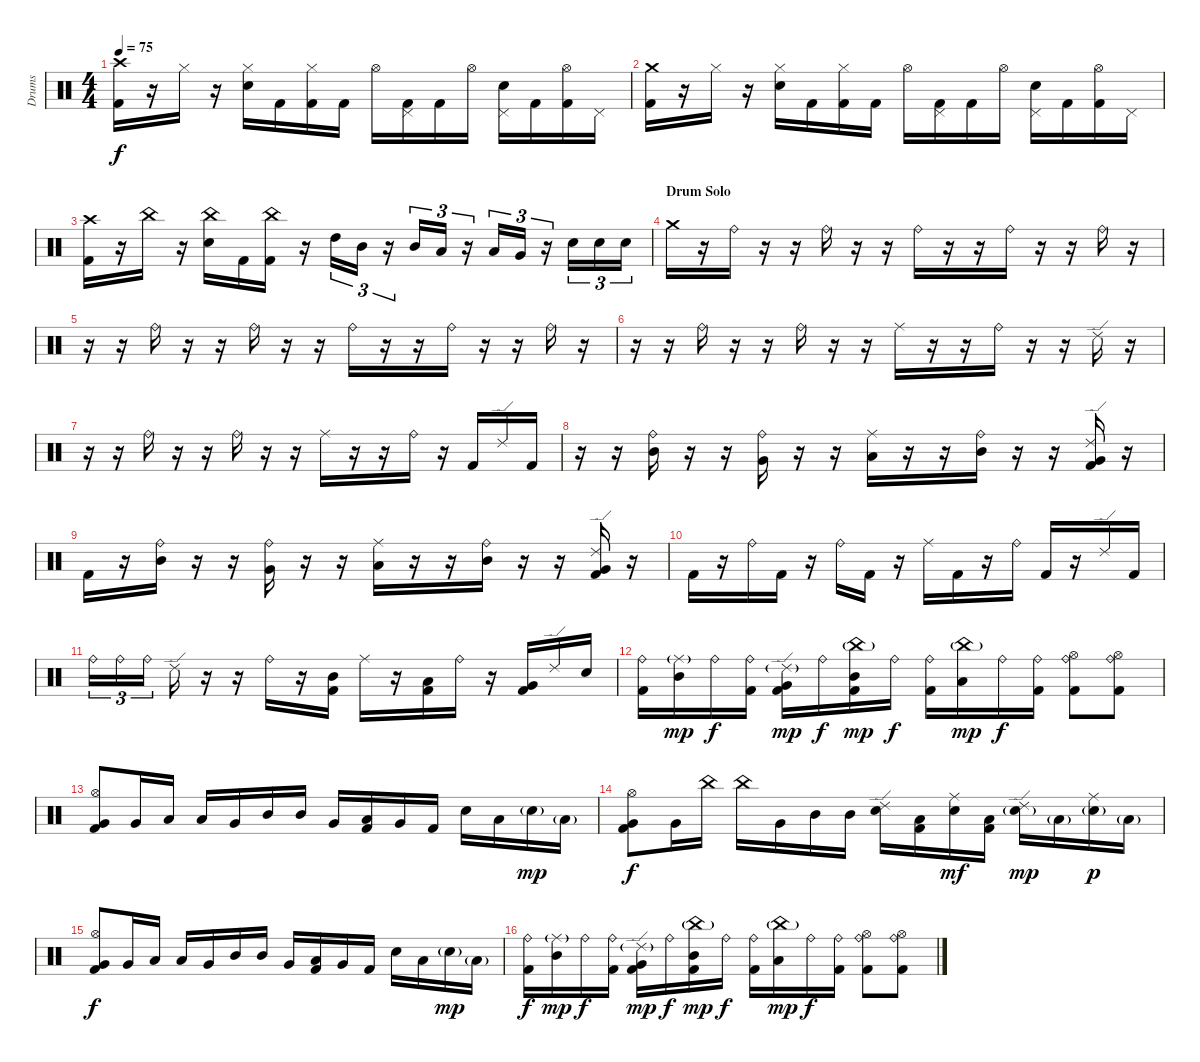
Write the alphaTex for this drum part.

\track ("Drums" "Drums") {instrument percussion}
\staff {score}
\articulation defaults
\ts (4 4)
\tempo 75
\clef neutral
\ks c
("Crash high (hit)" "Kick (hit) 2").16{dy f} r.16 "Hi-Hat (closed)".16 r.16 ("Hi-Hat (closed)" "Snare (hit) 2").16 "Kick (hit) 2".16 ("Hi-Hat (closed)" "Kick (hit) 2").16 "Kick (hit) 2".16 "Hi-Hat (open)".16 ("Pedal Hi-Hat (hit)" "Kick (hit) 2").16 "Kick (hit) 2".16 "Hi-Hat (open)".16 ("Pedal Hi-Hat (hit)" "Snare (hit) 2").16 "Kick (hit) 2".16 ("Hi-Hat (open)" "Kick (hit) 2").16 "Pedal Hi-Hat (hit)".16 |
("Crash medium (hit)" "Kick (hit) 2").16 r.16 "Hi-Hat (closed)".16 r.16 ("Hi-Hat (closed)" "Snare (hit) 2").16 "Kick (hit) 2".16 ("Hi-Hat (closed)" "Kick (hit) 2").16 "Kick (hit) 2".16 "Hi-Hat (open)".16 ("Pedal Hi-Hat (hit)" "Kick (hit) 2").16 "Kick (hit) 2".16 "Hi-Hat (open)".16 ("Pedal Hi-Hat (hit)" "Snare (hit) 2").16 "Kick (hit) 2".16 ("Hi-Hat (open)" "Kick (hit) 2").16 "Pedal Hi-Hat (hit)".16 |
("Crash high (hit)" "Kick (hit) 2").16 r.16 "China (hit)".16 r.16 ("China (hit)" "Snare (hit) 2").16 "Kick (hit) 2".16 ("China (hit)" "Kick (hit) 2").16 r.16 "High Tom (hit)".16{tu (3 2)} "Mid Tom (hit)".16{tu (3 2)} r.16{tu (3 2)} "Mid Tom (hit)".16{tu (3 2)} "Low Tom (hit)".16{tu (3 2)} r.16{tu (3 2)} "Low Tom (hit)".16{tu (3 2)} "Very Low Tom (hit)".16{tu (3 2)} r.16{tu (3 2)} "Snare (hit) 2".16{tu (3 2)} "Snare (hit) 2".16{tu (3 2)} "Snare (hit) 2".16{tu (3 2)} |
\section ("" "Drum Solo")
"Crash medium (hit)".16 r.16 "Ride (bell)".16 r.16 r.16 "Ride (bell)".16 r.16 r.16 "Ride (bell)".16 r.16 r.16 "Ride (bell)".16 r.16 r.16 "Ride (bell)".16 r.16 |
r.16 r.16 "Ride (bell)".16 r.16 r.16 "Ride (bell)".16 r.16 r.16 "Ride (bell)".16 r.16 r.16 "Ride (bell)".16 r.16 r.16 "Ride (bell)".16 r.16 |
r.16 r.16 "Ride (bell)".16 r.16 r.16 "Ride (bell)".16 r.16 r.16 "Ride (middle)".16 r.16 r.16 "Ride (bell)".16 r.16 r.16 "Ride (edge) 2".16 r.16 |
r.16 r.16 "Ride (bell)".16 r.16 r.16 "Ride (bell)".16 r.16 r.16 "Ride (middle)".16 r.16 r.16 "Ride (bell)".16 r.16 "Kick (hit) 2".16 "Ride (edge) 2".16 "Kick (hit) 2".16 |
r.16 r.16 ("Ride (bell)" "Mid Tom (hit)").16 r.16 r.16 ("Ride (bell)" "Very Low Tom (hit)").16 r.16 r.16 ("Ride (middle)" "Low Tom (hit)").16 r.16 r.16 ("Ride (bell)" "Mid Tom (hit)").16 r.16 r.16 ("Ride (edge) 2" "Very Low Tom (hit)" "Kick (hit) 2").16 r.16 |
"Kick (hit) 2".16 r.16 ("Ride (bell)" "Mid Tom (hit)").16 r.16 r.16 ("Ride (bell)" "Very Low Tom (hit)").16 r.16 r.16 ("Ride (middle)" "Low Tom (hit)").16 r.16 r.16 ("Ride (bell)" "Mid Tom (hit)").16 r.16 r.16 ("Ride (edge) 2" "Very Low Tom (hit)" "Kick (hit) 2").16 r.16 |
"Kick (hit) 2".16 r.16 "Ride (bell)".16 "Kick (hit) 2".16 r.16 "Ride (bell)".16 "Kick (hit) 2".16 r.16 "Ride (middle)".16 "Kick (hit) 2".16 r.16 "Ride (bell)".16 "Kick (hit) 2".16 r.16 "Ride (edge) 2".16 "Kick (hit) 2".16 |
"Ride (bell)".16{tu (3 2)} "Ride (bell)".16{tu (3 2)} "Ride (bell)".16{tu (3 2)} "Ride (edge) 2".16 r.16 r.16 "Ride (bell)".16 r.16 ("Mid Tom (hit)" "Kick (hit) 2").16 "Ride (middle)".16 r.16 ("Low Tom (hit)" "Kick (hit) 2").16 "Ride (bell)".16 r.16 ("Very Low Tom (hit)" "Kick (hit) 2").16 "Ride (edge) 2".16 "Snare (hit) 2".16 |
("Ride (bell)" "Kick (hit) 2").16 ("Ride (middle)"{g} "Mid Tom (hit)").16{dy mp} "Ride (bell)".16{dy f} ("Ride (bell)" "Kick (hit) 2").16 ("Ride (edge) 2"{g} "Very Low Tom (hit)" "Kick (hit) 2").16{dy mp} "Ride (bell)".16{dy f} ("China (hit)"{g} "Mid Tom (hit)" "Kick (hit) 2").16{dy mp} "Ride (bell)".16{dy f} ("Ride (bell)" "Kick (hit) 2").16 ("China (hit)"{g} "Low Tom (hit)").16{dy mp} "Ride (bell)".16{dy f} ("Ride (bell)" "Kick (hit) 2").16 ("Ride (bell)" "Hi-Hat (open)" "Kick (hit) 2").8 ("Ride (bell)" "Hi-Hat (open)" "Kick (hit) 2").8 |
("Hi-Hat (open)" "Very Low Tom (hit)" "Kick (hit) 2").8 "Very Low Tom (hit)".16 "Low Tom (hit)".16 "Low Tom (hit)".16 "Very Low Tom (hit)".16 "Mid Tom (hit)".16 "Mid Tom (hit)".16 "Very Low Tom (hit)".16 ("Low Tom (hit)" "Kick (hit) 2").16 "Very Low Tom (hit)".16 "Kick (hit) 2".16 "Snare (hit) 2".16 "Low Tom (hit)".16 "Snare (hit) 2"{g}.16{dy mp} "Low Tom (hit)"{g}.16 |
("Hi-Hat (open)" "Very Low Tom (hit)" "Kick (hit) 2").8{dy f} "Very Low Tom (hit)".16 "China (hit)".16 "China (hit)".16 "Very Low Tom (hit)".16 "Mid Tom (hit)".16 "Mid Tom (hit)".16 ("Ride (edge) 2" "Snare (hit) 2").16 ("Low Tom (hit)" "Kick (hit) 2").16 ("Ride (middle)" "Snare (hit) 2").16{dy mf} ("Low Tom (hit)" "Kick (hit) 2").16 ("Ride (edge) 2" "Snare (hit) 2"{g}).16{dy mp} "Low Tom (hit)"{g}.16 ("Ride (middle)" "Snare (hit) 2"{g}).16{dy p} "Low Tom (hit)"{g}.16 |
("Hi-Hat (open)" "Very Low Tom (hit)" "Kick (hit) 2").8{dy f} "Very Low Tom (hit)".16 "Low Tom (hit)".16 "Low Tom (hit)".16 "Very Low Tom (hit)".16 "Mid Tom (hit)".16 "Mid Tom (hit)".16 "Very Low Tom (hit)".16 ("Low Tom (hit)" "Kick (hit) 2").16 "Very Low Tom (hit)".16 "Kick (hit) 2".16 "Snare (hit) 2".16 "Low Tom (hit)".16 "Snare (hit) 2"{g}.16{dy mp} "Low Tom (hit)"{g}.16 |
("Ride (bell)" "Kick (hit) 2").16{dy f} ("Ride (middle)"{g} "Mid Tom (hit)").16{dy mp} "Ride (bell)".16{dy f} ("Ride (bell)" "Kick (hit) 2").16 ("Ride (edge) 2"{g} "Very Low Tom (hit)" "Kick (hit) 2").16{dy mp} "Ride (bell)".16{dy f} ("China (hit)"{g} "Mid Tom (hit)" "Kick (hit) 2").16{dy mp} "Ride (bell)".16{dy f} ("Ride (bell)" "Kick (hit) 2").16 ("China (hit)"{g} "Low Tom (hit)").16{dy mp} "Ride (bell)".16{dy f} ("Ride (bell)" "Kick (hit) 2").16 ("Ride (bell)" "Hi-Hat (open)" "Kick (hit) 2").8 ("Ride (bell)" "Hi-Hat (open)" "Kick (hit) 2").8
